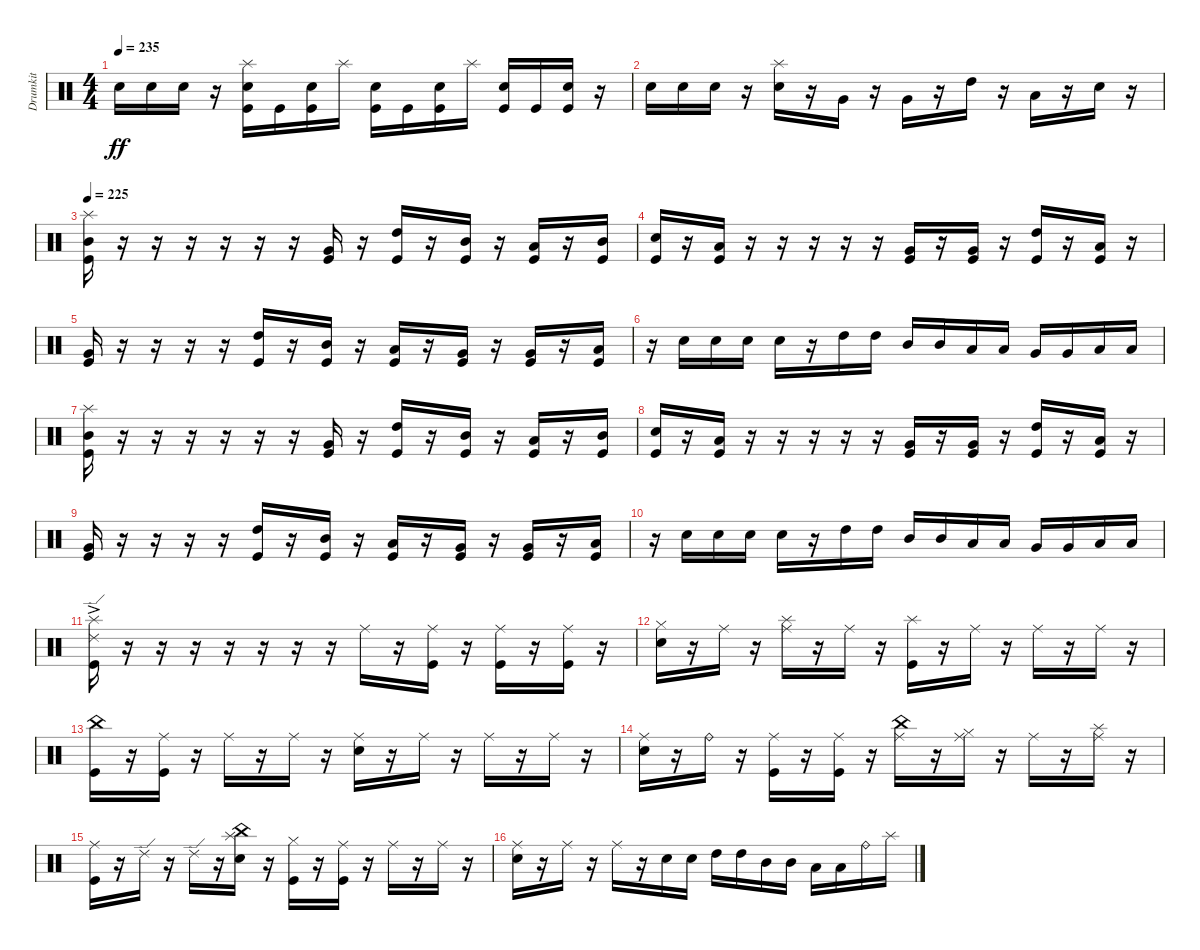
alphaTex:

\track ("Drumkit" "Drumkit") {instrument percussion}
\staff {score}
\articulation defaults
\ts (4 4)
\tempo 235
\clef neutral
\ks c "Snare (hit) 2".16{dy ff} "Snare (hit) 2".16 "Snare (hit) 2".16
r.16 ("Snare (hit) 2" "Splash (hit)" "Kick (hit)").16 "Kick (hit)".16 ("Snare (hit) 2" "Kick (hit)").16 "Splash (hit)".16 ("Snare (hit) 2" "Kick (hit)").16 "Kick (hit)".16 ("Snare (hit) 2" "Kick (hit)").16 "Splash (hit)".16 ("Snare (hit) 2" "Kick (hit)").16 "Kick (hit)".16 ("Snare (hit) 2" "Kick (hit)").16 r.16 |
"Snare (hit) 2".16 "Snare (hit) 2".16 "Snare (hit) 2".16 r.16 ("Snare (hit) 2" "Splash (hit)").16 r.16 "Very Low Tom (hit)".16 r.16 "Very Low Tom (hit)".16 r.16 "High Tom (hit)".16 r.16 "Low Tom (hit)".16 r.16 "Snare (hit) 2".16 r.16 |
\tempo 225
("Splash (hit)" "Mid Tom (hit)" "Kick (hit)").16 r.16 r.16 r.16 r.16 r.16 r.16 ("Very Low Tom (hit)" "Kick (hit)").16 r.16 ("High Tom (hit)" "Kick (hit)").16 r.16 ("Mid Tom (hit)" "Kick (hit)").16 r.16 ("Low Tom (hit)" "Kick (hit)").16 r.16 ("Mid Tom (hit)" "Kick (hit)").16 |
("Snare (hit) 2" "Kick (hit)").16 r.16 ("Low Tom (hit)" "Kick (hit)").16 r.16 r.16 r.16 r.16 r.16 ("Very Low Tom (hit)" "Kick (hit)").16 r.16 ("Very Low Tom (hit)" "Kick (hit)").16 r.16 ("High Tom (hit)" "Kick (hit)").16 r.16 ("Low Tom (hit)" "Kick (hit)").16 r.16 |
("Very Low Tom (hit)" "Kick (hit)").16 r.16 r.16 r.16 r.16 ("High Tom (hit)" "Kick (hit)").16 r.16 ("Mid Tom (hit)" "Kick (hit)").16 r.16 ("Low Tom (hit)" "Kick (hit)").16 r.16 ("Very Low Tom (hit)" "Kick (hit)").16 r.16 ("Very Low Tom (hit)" "Kick (hit)").16 r.16 ("Low Floor Tom (hit)" "Kick (hit)").16 |
r.16 "Snare (hit) 2".16 "Snare (hit) 2".16 "Snare (hit) 2".16 "Snare (hit) 2".16 r.16 "High Tom (hit)".16 "High Tom (hit)".16 "Mid Tom (hit)".16 "Mid Tom (hit)".16 "Low Tom (hit)".16 "Low Tom (hit)".16 "Very Low Tom (hit)".16 "Very Low Tom (hit)".16 "Low Floor Tom (hit)".16 "Low Floor Tom (hit)".16 |
("Splash (hit)" "Mid Tom (hit)" "Kick (hit)").16 r.16 r.16 r.16 r.16 r.16 r.16 ("Very Low Tom (hit)" "Kick (hit)").16 r.16 ("High Tom (hit)" "Kick (hit)").16 r.16 ("Mid Tom (hit)" "Kick (hit)").16 r.16 ("Low Tom (hit)" "Kick (hit)").16 r.16 ("Mid Tom (hit)" "Kick (hit)").16 |
("Snare (hit) 2" "Kick (hit)").16 r.16 ("Low Tom (hit)" "Kick (hit)").16 r.16 r.16 r.16 r.16 r.16 ("Very Low Tom (hit)" "Kick (hit)").16 r.16 ("Very Low Tom (hit)" "Kick (hit)").16 r.16 ("High Tom (hit)" "Kick (hit)").16 r.16 ("Low Tom (hit)" "Kick (hit)").16 r.16 |
("Very Low Tom (hit)" "Kick (hit)").16 r.16 r.16 r.16 r.16 ("High Tom (hit)" "Kick (hit)").16 r.16 ("Mid Tom (hit)" "Kick (hit)").16 r.16 ("Low Tom (hit)" "Kick (hit)").16 r.16 ("Very Low Tom (hit)" "Kick (hit)").16 r.16 ("Very Low Tom (hit)" "Kick (hit)").16 r.16 ("Low Floor Tom (hit)" "Kick (hit)").16 |
r.16 "Snare (hit) 2".16 "Snare (hit) 2".16 "Snare (hit) 2".16 "Snare (hit) 2".16 r.16 "High Tom (hit)".16 "High Tom (hit)".16 "Mid Tom (hit)".16 "Mid Tom (hit)".16 "Low Tom (hit)".16 "Low Tom (hit)".16 "Very Low Tom (hit)".16 "Very Low Tom (hit)".16 "Low Floor Tom (hit)".16 "Low Floor Tom (hit)".16 |
("Splash (hit)"{ac} "Ride (edge) 2"{ac} "Kick (hit)").16 r.16 r.16 r.16 r.16 r.16 r.16 r.16 "Ride (middle)".16 r.16 ("Ride (middle)" "Kick (hit)").16 r.16 ("Ride (middle)" "Kick (hit)").16 r.16 ("Ride (middle)" "Kick (hit)").16 r.16 |
("Hi-Hat (closed)" "Snare (hit) 2").16 r.16 "Ride (middle)".16 r.16 ("Ride (middle)" "Splash (hit)").16 r.16 "Ride (middle)".16 r.16 ("Splash (hit)" "Kick (hit)").16 r.16 "Ride (middle)".16 r.16 "Ride (middle)".16 r.16 "Ride (middle)".16 r.16 |
("China (hit)" "Kick (hit)").16 r.16 ("Ride (middle)" "Kick (hit)").16 r.16 "Ride (middle)".16 r.16 "Ride (middle)".16 r.16 ("Ride (middle)" "Snare (hit) 2").16 r.16 "Ride (middle)".16 r.16 "Ride (middle)".16 r.16 "Ride (middle)".16 r.16 |
("Ride (middle)" "Snare (hit) 2").16 r.16 "Ride (bell)".16 r.16 ("Ride (middle)" "Kick (hit)").16 r.16 ("Ride (middle)" "Kick (hit)").16 r.16 ("Ride (middle)" "China (hit)").16 r.16 ("Ride (middle)" "Hi-Hat (closed)").16 r.16 "Ride (middle)".16 r.16 ("Ride (middle)" "Splash (hit)").16 r.16 |
("Ride (middle)" "Kick (hit)").16 r.16 "Ride (edge) 2".16 r.16 "Ride (edge) 2".16 r.16 ("Snare (hit) 2" "Splash (hit)" "China (hit)").16 r.16 ("Hi-Hat (closed)" "Kick (hit)").16 r.16 ("Ride (middle)" "Kick (hit)").16 r.16 "Ride (middle)".16 r.16 "Ride (middle)".16 r.16 |
("Snare (hit) 2" "Ride (middle)").16 r.16 "Ride (middle)".16 r.16 "Ride (middle)".16 r.16 "Snare (hit) 2".16 "Snare (hit) 2".16 "High Tom (hit)".16 "High Tom (hit)".16 "Mid Tom (hit)".16 "Mid Tom (hit)".16 "Low Tom (hit)".16 "Low Tom (hit)".16 "Ride (bell)".16 "Splash (hit)".16
